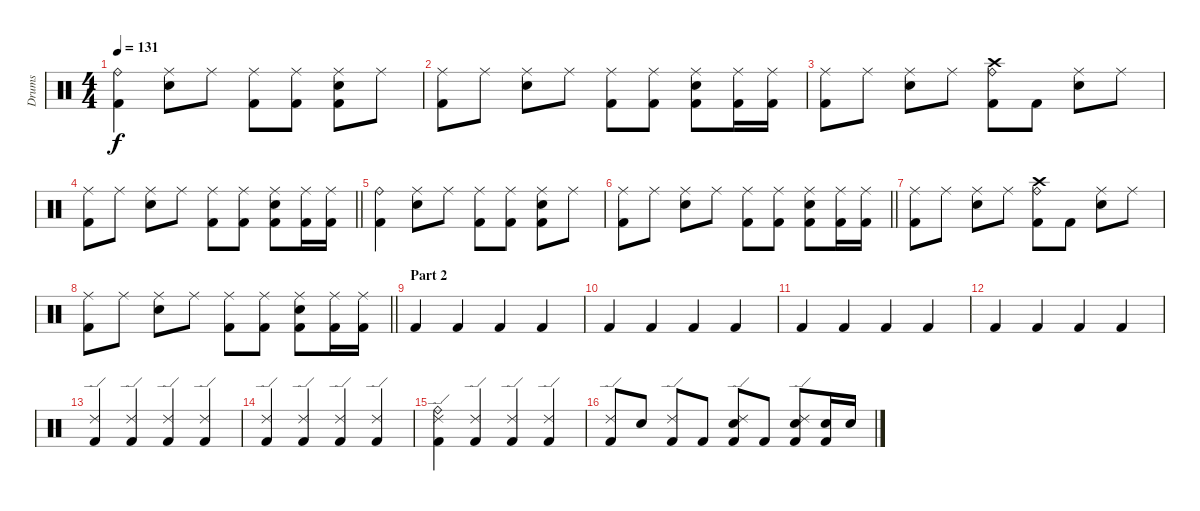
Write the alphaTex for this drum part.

\track ("Drums" "Drums") {instrument percussion}
\staff {score}
\articulation defaults
\ts (4 4)
\tempo 131
\clef neutral
\ks c
("Ride (bell)" "Kick (hit) 2").4{dy f} ("Ride (middle)" "Snare (hit) 2").8 "Ride (middle)".8 ("Ride (middle)" "Kick (hit) 2").8 ("Ride (middle)" "Kick (hit) 2").8 ("Ride (middle)" "Snare (hit) 2" "Kick (hit) 2").8 "Ride (middle)".8 |
("Ride (middle)" "Kick (hit) 2").8 "Ride (middle)".8 ("Ride (middle)" "Snare (hit) 2").8 "Ride (middle)".8 ("Ride (middle)" "Kick (hit) 2").8 ("Ride (middle)" "Kick (hit) 2").8 ("Ride (middle)" "Snare (hit) 2" "Kick (hit) 2").8 ("Ride (middle)" "Kick (hit) 2").16 ("Ride (middle)" "Kick (hit) 2").16 |
("Ride (middle)" "Kick (hit) 2").8 "Ride (middle)".8 ("Ride (middle)" "Snare (hit) 2").8 "Ride (middle)".8 ("Crash high (hit)" "Ride (bell)" "Kick (hit) 2").8 "Kick (hit) 2".8 ("Ride (middle)" "Snare (hit) 2").8 "Ride (middle)".8 |
\barLineRight lightlight
("Ride (middle)" "Kick (hit) 2").8 "Ride (middle)".8 ("Ride (middle)" "Snare (hit) 2").8 "Ride (middle)".8 ("Ride (middle)" "Kick (hit) 2").8 ("Ride (middle)" "Kick (hit) 2").8 ("Ride (middle)" "Snare (hit) 2" "Kick (hit) 2").8 ("Ride (middle)" "Kick (hit) 2").16 ("Ride (middle)" "Kick (hit) 2").16 |
("Ride (bell)" "Kick (hit) 2").4 ("Ride (middle)" "Snare (hit) 2").8 "Ride (middle)".8 ("Ride (middle)" "Kick (hit) 2").8 ("Ride (middle)" "Kick (hit) 2").8 ("Ride (middle)" "Snare (hit) 2" "Kick (hit) 2").8 "Ride (middle)".8 |
\barLineRight lightlight
("Ride (middle)" "Kick (hit) 2").8 "Ride (middle)".8 ("Ride (middle)" "Snare (hit) 2").8 "Ride (middle)".8 ("Ride (middle)" "Kick (hit) 2").8 ("Ride (middle)" "Kick (hit) 2").8 ("Ride (middle)" "Snare (hit) 2" "Kick (hit) 2").8 ("Ride (middle)" "Kick (hit) 2").16 ("Ride (middle)" "Kick (hit) 2").16 |
("Ride (middle)" "Kick (hit) 2").8 "Ride (middle)".8 ("Ride (middle)" "Snare (hit) 2").8 "Ride (middle)".8 ("Crash high (hit)" "Ride (bell)" "Kick (hit) 2").8 "Kick (hit) 2".8 ("Ride (middle)" "Snare (hit) 2").8 "Ride (middle)".8 |
\barLineRight lightlight
("Ride (middle)" "Kick (hit) 2").8 "Ride (middle)".8 ("Ride (middle)" "Snare (hit) 2").8 "Ride (middle)".8 ("Ride (middle)" "Kick (hit) 2").8 ("Ride (middle)" "Kick (hit) 2").8 ("Ride (middle)" "Snare (hit) 2" "Kick (hit) 2").8 ("Ride (middle)" "Kick (hit) 2").16 ("Ride (middle)" "Kick (hit) 2").16 |
\section ("" "Part 2")
"Kick (hit) 2".4 "Kick (hit) 2".4 "Kick (hit) 2".4 "Kick (hit) 2".4 |
"Kick (hit) 2".4 "Kick (hit) 2".4 "Kick (hit) 2".4 "Kick (hit) 2".4 |
"Kick (hit) 2".4 "Kick (hit) 2".4 "Kick (hit) 2".4 "Kick (hit) 2".4 |
"Kick (hit) 2".4 "Kick (hit) 2".4 "Kick (hit) 2".4 "Kick (hit) 2".4 |
("Ride (edge) 2" "Kick (hit) 2").4 ("Ride (edge) 2" "Kick (hit) 2").4 ("Ride (edge) 2" "Kick (hit) 2").4 ("Ride (edge) 2" "Kick (hit) 2").4 |
("Ride (edge) 2" "Kick (hit) 2").4 ("Ride (edge) 2" "Kick (hit) 2").4 ("Ride (edge) 2" "Kick (hit) 2").4 ("Ride (edge) 2" "Kick (hit) 2").4 |
("Ride (bell)" "Ride (edge) 2" "Kick (hit) 2").4 ("Ride (edge) 2" "Kick (hit) 2").4 ("Ride (edge) 2" "Kick (hit) 2").4 ("Ride (edge) 2" "Kick (hit) 2").4 |
("Ride (edge) 2" "Kick (hit) 2").8 "Snare (hit) 2".8 ("Ride (edge) 2" "Kick (hit) 2").8 "Kick (hit) 2".8 ("Ride (edge) 2" "Snare (hit) 2" "Kick (hit) 2").8 "Kick (hit) 2".8 ("Ride (edge) 2" "Snare (hit) 2" "Kick (hit) 2").8 ("Snare (hit) 2" "Kick (hit) 2").16 "Snare (hit) 2".16
